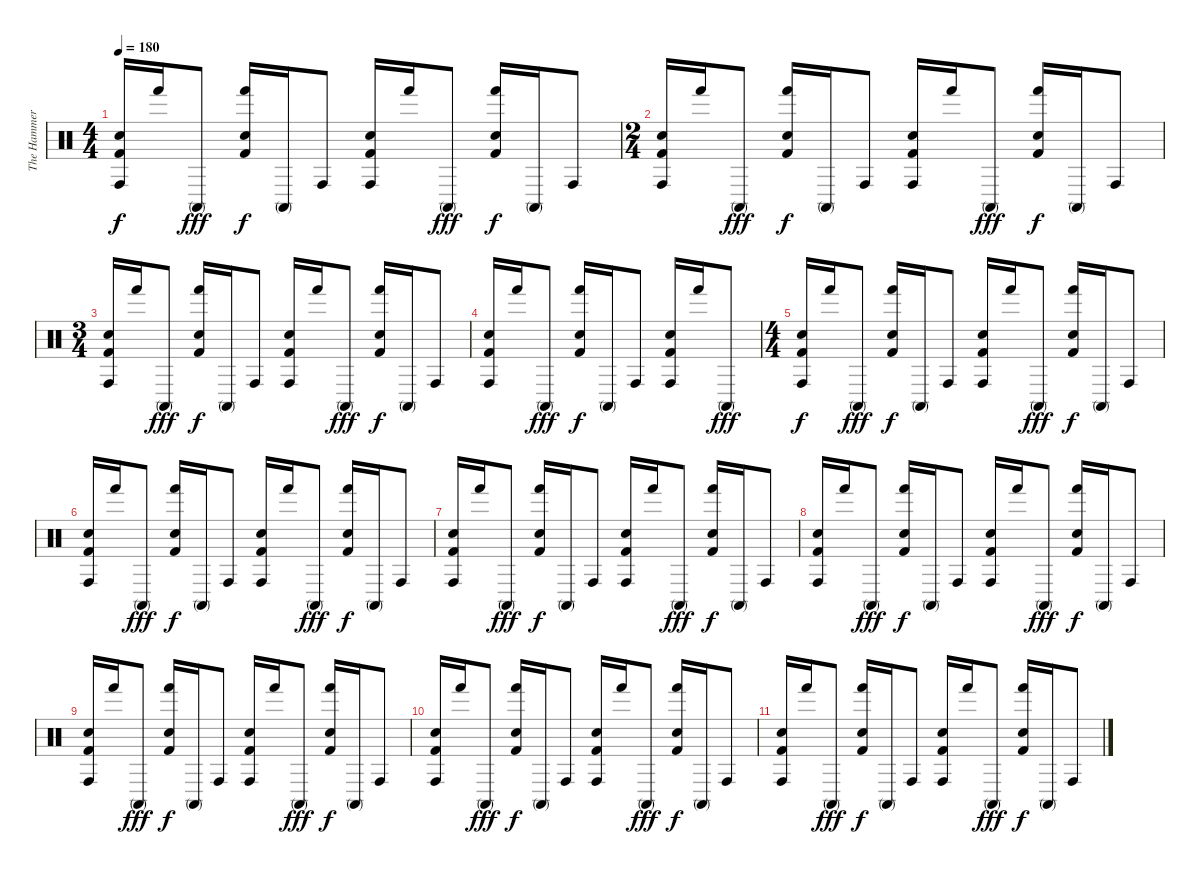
\track ("The Hammer" "The Hammer") {instrument percussion}
\staff {score}
\articulation defaults
\ts (4 4)
\tempo 180
\clef neutral
\ks c
("Conga high (hit)" "Hand Clap (hit)" "Kick (hit) 2").16{dy f} "Hand (hit)".16 "Conga high (mute)".8{dy fff} ("Hand (hit)" "Hand Clap (hit)" "Kick (hit) 2").16{dy f} "Conga high (mute)".16 "Conga high (hit)".8 ("Conga high (hit)" "Hand Clap (hit)" "Kick (hit) 2").16 "Hand (hit)".16 "Conga high (mute)".8{dy fff} ("Hand (hit)" "Hand Clap (hit)" "Kick (hit) 2").16{dy f} "Conga high (mute)".16 "Conga high (hit)".8 |
\ts (2 4)
("Conga high (hit)" "Hand Clap (hit)" "Kick (hit) 2").16 "Hand (hit)".16 "Conga high (mute)".8{dy fff} ("Hand (hit)" "Hand Clap (hit)" "Kick (hit) 2").16{dy f} "Conga high (mute)".16 "Conga high (hit)".8 ("Conga high (hit)" "Hand Clap (hit)" "Kick (hit) 2").16 "Hand (hit)".16 "Conga high (mute)".8{dy fff} ("Hand (hit)" "Hand Clap (hit)" "Kick (hit) 2").16{dy f} "Conga high (mute)".16 "Conga high (hit)".8 |
\ts (3 4)
("Conga high (hit)" "Hand Clap (hit)" "Kick (hit) 2").16 "Hand (hit)".16 "Conga high (mute)".8{dy fff} ("Hand (hit)" "Hand Clap (hit)" "Kick (hit) 2").16{dy f} "Conga high (mute)".16 "Conga high (hit)".8 ("Conga high (hit)" "Hand Clap (hit)" "Kick (hit) 2").16 "Hand (hit)".16 "Conga high (mute)".8{dy fff} ("Hand (hit)" "Hand Clap (hit)" "Kick (hit) 2").16{dy f} "Conga high (mute)".16 "Conga high (hit)".8 |
("Conga high (hit)" "Hand Clap (hit)" "Kick (hit) 2").16 "Hand (hit)".16 "Conga high (mute)".8{dy fff} ("Hand (hit)" "Hand Clap (hit)" "Kick (hit) 2").16{dy f} "Conga high (mute)".16 "Conga high (hit)".8 ("Conga high (hit)" "Hand Clap (hit)" "Kick (hit) 2").16 "Hand (hit)".16 "Conga high (mute)".8{dy fff} |
\ts (4 4)
("Conga high (hit)" "Hand Clap (hit)" "Kick (hit) 2").16{dy f} "Hand (hit)".16 "Conga high (mute)".8{dy fff} ("Hand (hit)" "Hand Clap (hit)" "Kick (hit) 2").16{dy f} "Conga high (mute)".16 "Conga high (hit)".8 ("Conga high (hit)" "Hand Clap (hit)" "Kick (hit) 2").16 "Hand (hit)".16 "Conga high (mute)".8{dy fff} ("Hand (hit)" "Hand Clap (hit)" "Kick (hit) 2").16{dy f} "Conga high (mute)".16 "Conga high (hit)".8 |
("Conga high (hit)" "Hand Clap (hit)" "Kick (hit) 2").16 "Hand (hit)".16 "Conga high (mute)".8{dy fff} ("Hand (hit)" "Hand Clap (hit)" "Kick (hit) 2").16{dy f} "Conga high (mute)".16 "Conga high (hit)".8 ("Conga high (hit)" "Hand Clap (hit)" "Kick (hit) 2").16 "Hand (hit)".16 "Conga high (mute)".8{dy fff} ("Hand (hit)" "Hand Clap (hit)" "Kick (hit) 2").16{dy f} "Conga high (mute)".16 "Conga high (hit)".8 |
("Conga high (hit)" "Hand Clap (hit)" "Kick (hit) 2").16 "Hand (hit)".16 "Conga high (mute)".8{dy fff} ("Hand (hit)" "Hand Clap (hit)" "Kick (hit) 2").16{dy f} "Conga high (mute)".16 "Conga high (hit)".8 ("Conga high (hit)" "Hand Clap (hit)" "Kick (hit) 2").16 "Hand (hit)".16 "Conga high (mute)".8{dy fff} ("Hand (hit)" "Hand Clap (hit)" "Kick (hit) 2").16{dy f} "Conga high (mute)".16 "Conga high (hit)".8 |
("Conga high (hit)" "Hand Clap (hit)" "Kick (hit) 2").16 "Hand (hit)".16 "Conga high (mute)".8{dy fff} ("Hand (hit)" "Hand Clap (hit)" "Kick (hit) 2").16{dy f} "Conga high (mute)".16 "Conga high (hit)".8 ("Conga high (hit)" "Hand Clap (hit)" "Kick (hit) 2").16 "Hand (hit)".16 "Conga high (mute)".8{dy fff} ("Hand (hit)" "Hand Clap (hit)" "Kick (hit) 2").16{dy f} "Conga high (mute)".16 "Conga high (hit)".8 |
("Conga high (hit)" "Hand Clap (hit)" "Kick (hit) 2").16 "Hand (hit)".16 "Conga high (mute)".8{dy fff} ("Hand (hit)" "Hand Clap (hit)" "Kick (hit) 2").16{dy f} "Conga high (mute)".16 "Conga high (hit)".8 ("Conga high (hit)" "Hand Clap (hit)" "Kick (hit) 2").16 "Hand (hit)".16 "Conga high (mute)".8{dy fff} ("Hand (hit)" "Hand Clap (hit)" "Kick (hit) 2").16{dy f} "Conga high (mute)".16 "Conga high (hit)".8 |
("Conga high (hit)" "Hand Clap (hit)" "Kick (hit) 2").16 "Hand (hit)".16 "Conga high (mute)".8{dy fff} ("Hand (hit)" "Hand Clap (hit)" "Kick (hit) 2").16{dy f} "Conga high (mute)".16 "Conga high (hit)".8 ("Conga high (hit)" "Hand Clap (hit)" "Kick (hit) 2").16 "Hand (hit)".16 "Conga high (mute)".8{dy fff} ("Hand (hit)" "Hand Clap (hit)" "Kick (hit) 2").16{dy f} "Conga high (mute)".16 "Conga high (hit)".8 |
("Conga high (hit)" "Hand Clap (hit)" "Kick (hit) 2").16 "Hand (hit)".16 "Conga high (mute)".8{dy fff} ("Hand (hit)" "Hand Clap (hit)" "Kick (hit) 2").16{dy f} "Conga high (mute)".16 "Conga high (hit)".8 ("Conga high (hit)" "Hand Clap (hit)" "Kick (hit) 2").16 "Hand (hit)".16 "Conga high (mute)".8{dy fff} ("Hand (hit)" "Hand Clap (hit)" "Kick (hit) 2").16{dy f} "Conga high (mute)".16 "Conga high (hit)".8
